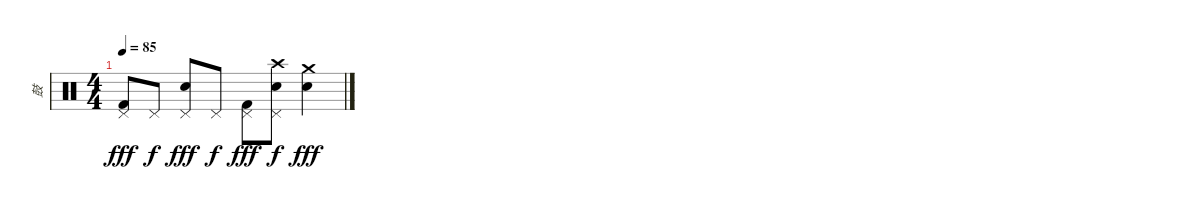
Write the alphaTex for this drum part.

\track ("鼓" "鼓") {instrument percussion}
\staff {score}
\articulation defaults
\ts (4 4)
\tempo 85
\clef neutral
\ks c
("Pedal Hi-Hat (hit)" "Kick (hit) 2").8{dy fff} "Pedal Hi-Hat (hit)".8{dy f} ("Pedal Hi-Hat (hit)" "Snare (hit) 2").8{dy fff} "Pedal Hi-Hat (hit)".8{dy f} ("Pedal Hi-Hat (hit)" "Kick (hit) 2").8{dy fff} ("Pedal Hi-Hat (hit)" "Crash high (hit)" "Snare (hit) 2").8{dy f} ("Crash medium (hit)" "Snare (hit) 2").4{dy fff}
